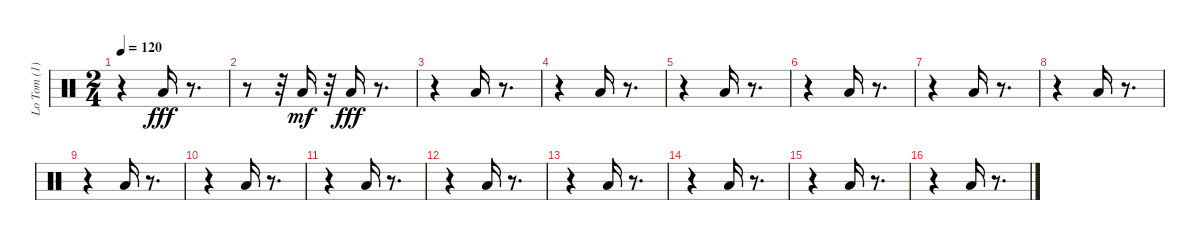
\track ("Lo Tom (1) (1) (1) (1)" "Lo Tom (1)") {instrument percussion}
\staff {score}
\articulation defaults
\ts (2 4)
\tempo 120
\clef neutral
\ks c
r.4{dy fff} "Low Tom (hit)".16 r.8{d} |
r.8 r.32 "Low Tom (hit)".16{dy mf} r.32 "Low Tom (hit)".16{dy fff} r.8{d} |
r.4 "Low Tom (hit)".16 r.8{d} |
r.4 "Low Tom (hit)".16 r.8{d} |
r.4 "Low Tom (hit)".16 r.8{d} |
r.4 "Low Tom (hit)".16 r.8{d} |
r.4 "Low Tom (hit)".16 r.8{d} |
r.4 "Low Tom (hit)".16 r.8{d} |
r.4 "Low Tom (hit)".16 r.8{d} |
r.4 "Low Tom (hit)".16 r.8{d} |
r.4 "Low Tom (hit)".16 r.8{d} |
r.4 "Low Tom (hit)".16 r.8{d} |
r.4 "Low Tom (hit)".16 r.8{d} |
r.4 "Low Tom (hit)".16 r.8{d} |
r.4 "Low Tom (hit)".16 r.8{d} |
r.4 "Low Tom (hit)".16 r.8{d}
